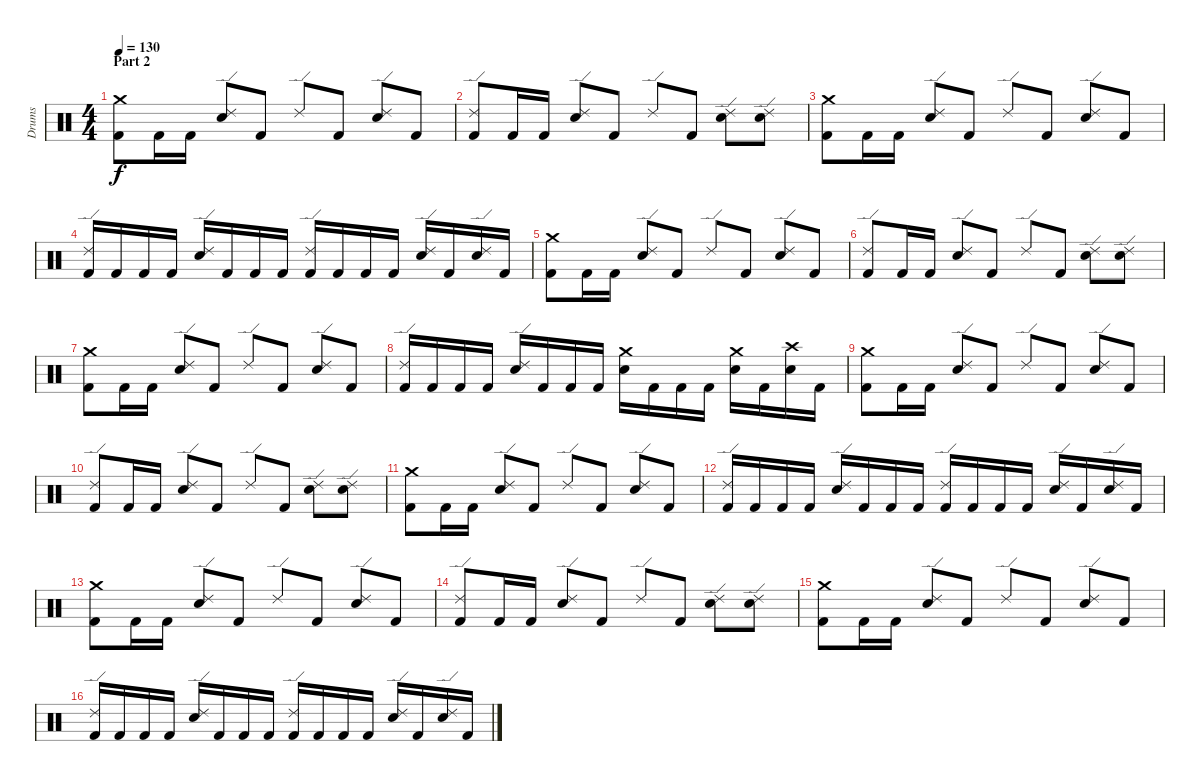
\track ("Drums" "Drums") {instrument percussion}
\staff {score}
\articulation defaults
\ts (4 4)
\section ("" "Part 2")
\tempo 130
\clef neutral
\ks c
("Crash medium (hit)" "Kick (hit) 2").8{dy f} "Kick (hit) 2".16 "Kick (hit) 2".16 ("Electric Snare (hit)" "Ride (edge) 2").8 "Kick (hit) 2".8 "Ride (edge) 2".8 "Kick (hit) 2".8 ("Ride (edge) 2" "Electric Snare (hit)").8 "Kick (hit) 2".8 |
("Ride (edge) 2" "Kick (hit) 2").8 "Kick (hit) 2".16 "Kick (hit) 2".16 ("Electric Snare (hit)" "Ride (edge) 2").8 "Kick (hit) 2".8 "Ride (edge) 2".8 "Kick (hit) 2".8 ("Electric Snare (hit)" "Ride (edge) 2").8 ("Ride (edge) 2" "Electric Snare (hit)").8 |
("Crash medium (hit)" "Kick (hit) 2").8 "Kick (hit) 2".16 "Kick (hit) 2".16 ("Electric Snare (hit)" "Ride (edge) 2").8 "Kick (hit) 2".8 "Ride (edge) 2".8 "Kick (hit) 2".8 ("Electric Snare (hit)" "Ride (edge) 2").8 "Kick (hit) 2".8 |
("Ride (edge) 2" "Kick (hit) 2").16 "Kick (hit) 2".16 "Kick (hit) 2".16 "Kick (hit) 2".16 ("Electric Snare (hit)" "Ride (edge) 2").16 "Kick (hit) 2".16 "Kick (hit) 2".16 "Kick (hit) 2".16 ("Ride (edge) 2" "Kick (hit) 2").16 "Kick (hit) 2".16 "Kick (hit) 2".16 "Kick (hit) 2".16 ("Electric Snare (hit)" "Ride (edge) 2").16 "Kick (hit) 2".16 ("Electric Snare (hit)" "Ride (edge) 2").16 "Kick (hit) 2".16 |
("Crash medium (hit)" "Kick (hit) 2").8 "Kick (hit) 2".16 "Kick (hit) 2".16 ("Electric Snare (hit)" "Ride (edge) 2").8 "Kick (hit) 2".8 "Ride (edge) 2".8 "Kick (hit) 2".8 ("Ride (edge) 2" "Electric Snare (hit)").8 "Kick (hit) 2".8 |
("Ride (edge) 2" "Kick (hit) 2").8 "Kick (hit) 2".16 "Kick (hit) 2".16 ("Electric Snare (hit)" "Ride (edge) 2").8 "Kick (hit) 2".8 "Ride (edge) 2".8 "Kick (hit) 2".8 ("Electric Snare (hit)" "Ride (edge) 2").8 ("Ride (edge) 2" "Electric Snare (hit)").8 |
("Crash medium (hit)" "Kick (hit) 2").8 "Kick (hit) 2".16 "Kick (hit) 2".16 ("Electric Snare (hit)" "Ride (edge) 2").8 "Kick (hit) 2".8 "Ride (edge) 2".8 "Kick (hit) 2".8 ("Electric Snare (hit)" "Ride (edge) 2").8 "Kick (hit) 2".8 |
("Ride (edge) 2" "Kick (hit) 2").16 "Kick (hit) 2".16 "Kick (hit) 2".16 "Kick (hit) 2".16 ("Electric Snare (hit)" "Ride (edge) 2").16 "Kick (hit) 2".16 "Kick (hit) 2".16 "Kick (hit) 2".16 ("Crash medium (hit)" "Electric Snare (hit)").16 "Kick (hit) 2".16 "Kick (hit) 2".16 "Kick (hit) 2".16 ("Electric Snare (hit)" "Crash medium (hit)").16 "Kick (hit) 2".16 ("Electric Snare (hit)" "Crash high (hit)").16 "Kick (hit) 2".16 |
("Crash medium (hit)" "Kick (hit) 2").8 "Kick (hit) 2".16 "Kick (hit) 2".16 ("Electric Snare (hit)" "Ride (edge) 2").8 "Kick (hit) 2".8 "Ride (edge) 2".8 "Kick (hit) 2".8 ("Ride (edge) 2" "Electric Snare (hit)").8 "Kick (hit) 2".8 |
("Ride (edge) 2" "Kick (hit) 2").8 "Kick (hit) 2".16 "Kick (hit) 2".16 ("Electric Snare (hit)" "Ride (edge) 2").8 "Kick (hit) 2".8 "Ride (edge) 2".8 "Kick (hit) 2".8 ("Electric Snare (hit)" "Ride (edge) 2").8 ("Ride (edge) 2" "Electric Snare (hit)").8 |
("Crash medium (hit)" "Kick (hit) 2").8 "Kick (hit) 2".16 "Kick (hit) 2".16 ("Electric Snare (hit)" "Ride (edge) 2").8 "Kick (hit) 2".8 "Ride (edge) 2".8 "Kick (hit) 2".8 ("Electric Snare (hit)" "Ride (edge) 2").8 "Kick (hit) 2".8 |
("Ride (edge) 2" "Kick (hit) 2").16 "Kick (hit) 2".16 "Kick (hit) 2".16 "Kick (hit) 2".16 ("Electric Snare (hit)" "Ride (edge) 2").16 "Kick (hit) 2".16 "Kick (hit) 2".16 "Kick (hit) 2".16 ("Ride (edge) 2" "Kick (hit) 2").16 "Kick (hit) 2".16 "Kick (hit) 2".16 "Kick (hit) 2".16 ("Electric Snare (hit)" "Ride (edge) 2").16 "Kick (hit) 2".16 ("Electric Snare (hit)" "Ride (edge) 2").16 "Kick (hit) 2".16 |
("Crash medium (hit)" "Kick (hit) 2").8 "Kick (hit) 2".16 "Kick (hit) 2".16 ("Electric Snare (hit)" "Ride (edge) 2").8 "Kick (hit) 2".8 "Ride (edge) 2".8 "Kick (hit) 2".8 ("Ride (edge) 2" "Electric Snare (hit)").8 "Kick (hit) 2".8 |
("Ride (edge) 2" "Kick (hit) 2").8 "Kick (hit) 2".16 "Kick (hit) 2".16 ("Electric Snare (hit)" "Ride (edge) 2").8 "Kick (hit) 2".8 "Ride (edge) 2".8 "Kick (hit) 2".8 ("Electric Snare (hit)" "Ride (edge) 2").8 ("Ride (edge) 2" "Electric Snare (hit)").8 |
("Crash medium (hit)" "Kick (hit) 2").8 "Kick (hit) 2".16 "Kick (hit) 2".16 ("Electric Snare (hit)" "Ride (edge) 2").8 "Kick (hit) 2".8 "Ride (edge) 2".8 "Kick (hit) 2".8 ("Electric Snare (hit)" "Ride (edge) 2").8 "Kick (hit) 2".8 |
("Ride (edge) 2" "Kick (hit) 2").16 "Kick (hit) 2".16 "Kick (hit) 2".16 "Kick (hit) 2".16 ("Electric Snare (hit)" "Ride (edge) 2").16 "Kick (hit) 2".16 "Kick (hit) 2".16 "Kick (hit) 2".16 ("Ride (edge) 2" "Kick (hit) 2").16 "Kick (hit) 2".16 "Kick (hit) 2".16 "Kick (hit) 2".16 ("Electric Snare (hit)" "Ride (edge) 2").16 "Kick (hit) 2".16 ("Electric Snare (hit)" "Ride (edge) 2").16 "Kick (hit) 2".16
